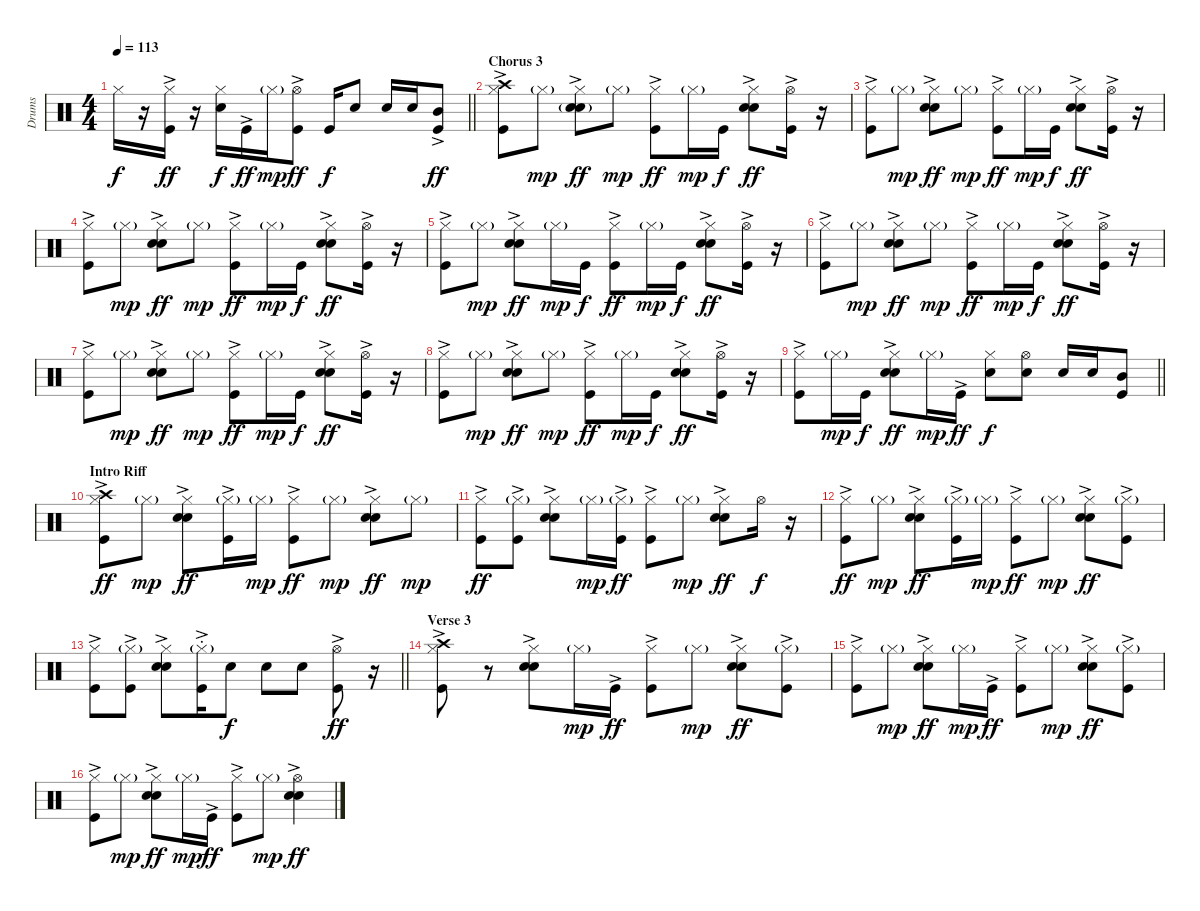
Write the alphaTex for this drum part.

\track ("Drums" "Drums") {instrument percussion}
\staff {score}
\articulation defaults
\ts (4 4)
\tempo 113
\clef neutral
\barLineRight lightlight
\ks c "Hi-Hat (closed)".16{dy f}
r.16 ("Hi-Hat (closed)" "Kick (hit)"{ac}).16{dy ff} r.16 ("Hi-Hat (closed)" "Snare (hit) 2").16{dy f} "Kick (hit)"{ac}.16{dy ff} "Hi-Hat (closed)"{g}.16{dy mp} ("Hi-Hat (open)" "Kick (hit)"{ac}).8{dy ff} "Kick (hit)".16{dy f} "Snare (hit) 2".8 "Snare (hit) 2".16 "Snare (hit) 2".16 ("Mid Tom (hit)" "Kick (hit)"{ac}).8{dy ff} |
\section ("" "Chorus 3")
("Crash high (hit)" "Hi-Hat (closed)" "Kick (hit)"{ac}).8 "Hi-Hat (closed)"{g}.8{dy mp} ("Hi-Hat (closed)" "Hand Clap (hit)"{g} "Snare (hit) 2"{ac}).8{dy ff} "Hi-Hat (closed)"{g}.8{dy mp} ("Hi-Hat (closed)" "Kick (hit)"{ac}).8{dy ff} "Hi-Hat (closed)"{g}.16{dy mp} "Kick (hit)".16{dy f} ("Hi-Hat (closed)" "Hand Clap (hit)" "Snare (hit) 2"{ac}).8{dy ff} ("Hi-Hat (open)" "Kick (hit)"{ac}).16 r.16 |
("Hi-Hat (closed)" "Kick (hit)"{ac}).8 "Hi-Hat (closed)"{g}.8{dy mp} ("Hi-Hat (closed)" "Hand Clap (hit)" "Snare (hit) 2"{ac}).8{dy ff} "Hi-Hat (closed)"{g}.8{dy mp} ("Hi-Hat (closed)" "Kick (hit)"{ac}).8{dy ff} "Hi-Hat (closed)"{g}.16{dy mp} "Kick (hit)".16{dy f} ("Hi-Hat (closed)" "Hand Clap (hit)"{ac} "Snare (hit) 2").8{dy ff} ("Hi-Hat (open)" "Kick (hit)"{ac}).16 r.16 |
("Hi-Hat (closed)" "Kick (hit)"{ac}).8 "Hi-Hat (closed)"{g}.8{dy mp} ("Hi-Hat (closed)" "Hand Clap (hit)"{ac} "Snare (hit) 2").8{dy ff} "Hi-Hat (closed)"{g}.8{dy mp} ("Hi-Hat (closed)" "Kick (hit)"{ac}).8{dy ff} "Hi-Hat (closed)"{g}.16{dy mp} "Kick (hit)".16{dy f} ("Hi-Hat (closed)" "Hand Clap (hit)"{ac} "Snare (hit) 2").8{dy ff} ("Hi-Hat (open)" "Kick (hit)"{ac}).16 r.16 |
("Hi-Hat (closed)" "Kick (hit)"{ac}).8 "Hi-Hat (closed)"{g}.8{dy mp} ("Hi-Hat (closed)" "Hand Clap (hit)"{ac} "Snare (hit) 2").8{dy ff} "Hi-Hat (closed)"{g}.16{dy mp} "Kick (hit)".16{dy f} ("Hi-Hat (closed)" "Kick (hit)"{ac}).8{dy ff} "Hi-Hat (closed)"{g}.16{dy mp} "Kick (hit)".16{dy f} ("Hi-Hat (closed)" "Hand Clap (hit)"{ac} "Snare (hit) 2").8{dy ff} ("Hi-Hat (open)" "Kick (hit)"{ac}).16 r.16 |
("Hi-Hat (closed)" "Kick (hit)"{ac}).8 "Hi-Hat (closed)"{g}.8{dy mp} ("Hi-Hat (closed)" "Hand Clap (hit)"{ac} "Snare (hit) 2").8{dy ff} "Hi-Hat (closed)"{g}.8{dy mp} ("Hi-Hat (closed)" "Kick (hit)"{ac}).8{dy ff} "Hi-Hat (closed)"{g}.16{dy mp} "Kick (hit)".16{dy f} ("Hi-Hat (closed)" "Hand Clap (hit)"{ac} "Snare (hit) 2").8{dy ff} ("Hi-Hat (open)" "Kick (hit)"{ac}).16 r.16 |
("Hi-Hat (closed)" "Kick (hit)"{ac}).8 "Hi-Hat (closed)"{g}.8{dy mp} ("Hi-Hat (closed)" "Hand Clap (hit)"{ac} "Snare (hit) 2").8{dy ff} "Hi-Hat (closed)"{g}.8{dy mp} ("Hi-Hat (closed)" "Kick (hit)"{ac}).8{dy ff} "Hi-Hat (closed)"{g}.16{dy mp} "Kick (hit)".16{dy f} ("Hi-Hat (closed)" "Hand Clap (hit)"{ac} "Snare (hit) 2").8{dy ff} ("Hi-Hat (open)" "Kick (hit)"{ac}).16 r.16 |
("Hi-Hat (closed)" "Kick (hit)"{ac}).8 "Hi-Hat (closed)"{g}.8{dy mp} ("Hi-Hat (closed)" "Hand Clap (hit)"{ac} "Snare (hit) 2").8{dy ff} "Hi-Hat (closed)"{g}.8{dy mp} ("Hi-Hat (closed)" "Kick (hit)"{ac}).8{dy ff} "Hi-Hat (closed)"{g}.16{dy mp} "Kick (hit)".16{dy f} ("Hi-Hat (closed)" "Hand Clap (hit)"{ac} "Snare (hit) 2").8{dy ff} ("Hi-Hat (open)" "Kick (hit)"{ac}).16 r.16 |
\barLineRight lightlight
("Hi-Hat (closed)" "Kick (hit)"{ac}).8 "Hi-Hat (closed)"{g}.16{dy mp} "Kick (hit)".16{dy f} ("Hi-Hat (closed)" "Hand Clap (hit)"{ac} "Snare (hit) 2").8{dy ff} "Hi-Hat (closed)"{g}.16{dy mp} "Kick (hit)"{ac}.16{dy ff} ("Hi-Hat (closed)" "Snare (hit) 2").8{dy f} ("Hi-Hat (open)" "Snare (hit) 2").8 "Snare (hit) 2".16 "Snare (hit) 2".16 ("Mid Tom (hit)" "Kick (hit)").8 |
\section ("" "Intro Riff")
("Crash high (hit)" "Hi-Hat (closed)" "Kick (hit)"{ac}).8{dy ff} "Hi-Hat (closed)"{g}.8{dy mp} ("Hi-Hat (closed)" "Hand Clap (hit)" "Snare (hit) 2"{ac}).8{dy ff} ("Hi-Hat (closed)"{g} "Kick (hit)"{ac}).16 "Hi-Hat (closed)"{g}.16{dy mp} ("Hi-Hat (closed)" "Kick (hit)"{ac}).8{dy ff} "Hi-Hat (closed)"{g}.8{dy mp} ("Hi-Hat (closed)" "Hand Clap (hit)" "Snare (hit) 2"{ac}).8{dy ff} "Hi-Hat (closed)"{g}.8{dy mp} |
("Hi-Hat (closed)" "Kick (hit)"{ac}).8{dy ff} ("Hi-Hat (closed)"{g} "Kick (hit)"{ac}).8 ("Hi-Hat (closed)" "Hand Clap (hit)" "Snare (hit) 2"{ac}).8 "Hi-Hat (closed)"{g}.16{dy mp} ("Hi-Hat (closed)"{g} "Kick (hit)"{ac}).16{dy ff} ("Hi-Hat (closed)" "Kick (hit)"{ac}).8 "Hi-Hat (closed)"{g}.8{dy mp} ("Hi-Hat (closed)" "Hand Clap (hit)" "Snare (hit) 2"{ac}).8{dy ff} "Hi-Hat (open)".16{dy f} r.16 |
("Hi-Hat (closed)" "Kick (hit)"{ac}).8{dy ff} "Hi-Hat (closed)"{g}.8{dy mp} ("Hi-Hat (closed)" "Hand Clap (hit)" "Snare (hit) 2"{ac}).8{dy ff} ("Hi-Hat (closed)"{g} "Kick (hit)"{ac}).16 "Hi-Hat (closed)"{g}.16{dy mp} ("Hi-Hat (closed)" "Kick (hit)"{ac}).8{dy ff} "Hi-Hat (closed)"{g}.8{dy mp} ("Hi-Hat (closed)" "Hand Clap (hit)" "Snare (hit) 2"{ac}).8{dy ff} ("Hi-Hat (closed)"{g} "Kick (hit)"{ac}).8 |
\barLineRight lightlight
("Hi-Hat (closed)" "Kick (hit)"{ac}).8 ("Hi-Hat (closed)"{g} "Kick (hit)"{ac}).8 ("Hi-Hat (closed)" "Hand Clap (hit)" "Snare (hit) 2"{ac}).8 ("Hi-Hat (closed)"{g} "Kick (hit)"{ac st}).16 "Snare (hit) 2".8{dy f} "Snare (hit) 2".8 "Snare (hit) 2".8 ("Hi-Hat (open)" "Kick (hit)"{ac}).8{dy ff} r.16 |
\section ("" "Verse 3")
("Crash high (hit)" "Hi-Hat (closed)" "Kick (hit)"{ac}).8 r.8 ("Hi-Hat (closed)" "Hand Clap (hit)" "Snare (hit) 2"{ac}).8 "Hi-Hat (closed)"{g}.16{dy mp} "Kick (hit)"{ac}.16{dy ff} ("Hi-Hat (closed)" "Kick (hit)"{ac}).8 "Hi-Hat (closed)"{g}.8{dy mp} ("Hi-Hat (closed)" "Hand Clap (hit)" "Snare (hit) 2"{ac}).8{dy ff} ("Hi-Hat (closed)"{g} "Kick (hit)"{ac}).8 |
("Hi-Hat (closed)" "Kick (hit)"{ac}).8 "Hi-Hat (closed)"{g}.8{dy mp} ("Hi-Hat (closed)" "Hand Clap (hit)" "Snare (hit) 2"{ac}).8{dy ff} "Hi-Hat (closed)"{g}.16{dy mp} "Kick (hit)"{ac}.16{dy ff} ("Hi-Hat (closed)" "Kick (hit)"{ac}).8 "Hi-Hat (closed)"{g}.8{dy mp} ("Hi-Hat (closed)" "Hand Clap (hit)" "Snare (hit) 2"{ac}).8{dy ff} ("Hi-Hat (closed)"{g} "Kick (hit)"{ac}).8 |
("Hi-Hat (closed)" "Kick (hit)"{ac}).8 "Hi-Hat (closed)"{g}.8{dy mp} ("Hi-Hat (closed)" "Hand Clap (hit)" "Snare (hit) 2"{ac}).8{dy ff} "Hi-Hat (closed)"{g}.16{dy mp} "Kick (hit)"{ac}.16{dy ff} ("Hi-Hat (closed)" "Kick (hit)"{ac}).8 "Hi-Hat (closed)"{g}.8{dy mp} ("Hi-Hat (open)" "Hand Clap (hit)" "Snare (hit) 2"{ac}).4{dy ff}
